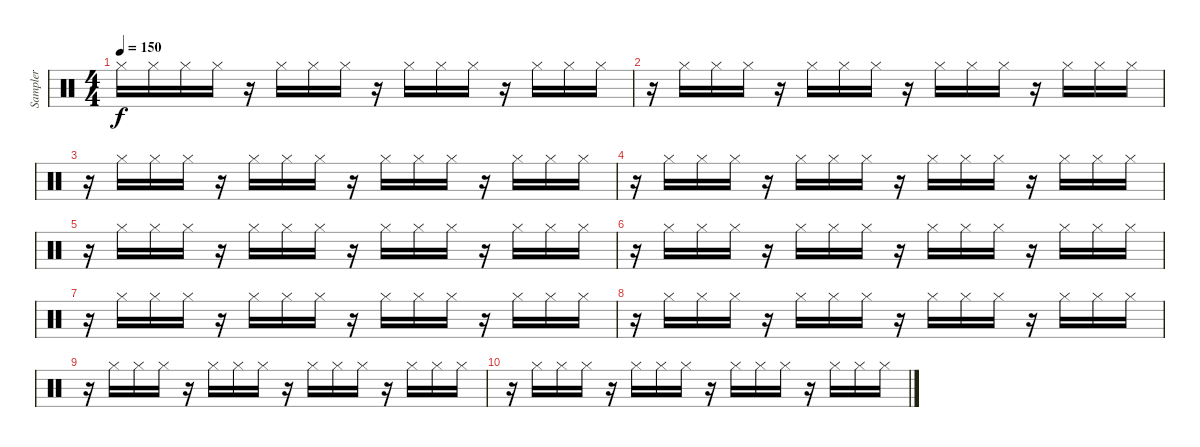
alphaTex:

\track ("Sampler" "Sampler") {instrument percussion}
\staff {score}
\articulation defaults
\ts (4 4)
\tempo 150
\clef neutral
\ks c "Hi-Hat (closed)".16{dy f} "Hi-Hat (closed)".16 "Hi-Hat (closed)".16 "Hi-Hat (closed)".16
r.16 "Hi-Hat (closed)".16 "Hi-Hat (closed)".16 "Hi-Hat (closed)".16 r.16 "Hi-Hat (closed)".16 "Hi-Hat (closed)".16 "Hi-Hat (closed)".16 r.16 "Hi-Hat (closed)".16 "Hi-Hat (closed)".16 "Hi-Hat (closed)".16 |
r.16 "Hi-Hat (closed)".16 "Hi-Hat (closed)".16 "Hi-Hat (closed)".16 r.16 "Hi-Hat (closed)".16 "Hi-Hat (closed)".16 "Hi-Hat (closed)".16 r.16 "Hi-Hat (closed)".16 "Hi-Hat (closed)".16 "Hi-Hat (closed)".16 r.16 "Hi-Hat (closed)".16 "Hi-Hat (closed)".16 "Hi-Hat (closed)".16 |
r.16 "Hi-Hat (closed)".16 "Hi-Hat (closed)".16 "Hi-Hat (closed)".16 r.16 "Hi-Hat (closed)".16 "Hi-Hat (closed)".16 "Hi-Hat (closed)".16 r.16 "Hi-Hat (closed)".16 "Hi-Hat (closed)".16 "Hi-Hat (closed)".16 r.16 "Hi-Hat (closed)".16 "Hi-Hat (closed)".16 "Hi-Hat (closed)".16 |
r.16 "Hi-Hat (closed)".16 "Hi-Hat (closed)".16 "Hi-Hat (closed)".16 r.16 "Hi-Hat (closed)".16 "Hi-Hat (closed)".16 "Hi-Hat (closed)".16 r.16 "Hi-Hat (closed)".16 "Hi-Hat (closed)".16 "Hi-Hat (closed)".16 r.16 "Hi-Hat (closed)".16 "Hi-Hat (closed)".16 "Hi-Hat (closed)".16 |
r.16 "Hi-Hat (closed)".16 "Hi-Hat (closed)".16 "Hi-Hat (closed)".16 r.16 "Hi-Hat (closed)".16 "Hi-Hat (closed)".16 "Hi-Hat (closed)".16 r.16 "Hi-Hat (closed)".16 "Hi-Hat (closed)".16 "Hi-Hat (closed)".16 r.16 "Hi-Hat (closed)".16 "Hi-Hat (closed)".16 "Hi-Hat (closed)".16 |
r.16 "Hi-Hat (closed)".16 "Hi-Hat (closed)".16 "Hi-Hat (closed)".16 r.16 "Hi-Hat (closed)".16 "Hi-Hat (closed)".16 "Hi-Hat (closed)".16 r.16 "Hi-Hat (closed)".16 "Hi-Hat (closed)".16 "Hi-Hat (closed)".16 r.16 "Hi-Hat (closed)".16 "Hi-Hat (closed)".16 "Hi-Hat (closed)".16 |
r.16 "Hi-Hat (closed)".16 "Hi-Hat (closed)".16 "Hi-Hat (closed)".16 r.16 "Hi-Hat (closed)".16 "Hi-Hat (closed)".16 "Hi-Hat (closed)".16 r.16 "Hi-Hat (closed)".16 "Hi-Hat (closed)".16 "Hi-Hat (closed)".16 r.16 "Hi-Hat (closed)".16 "Hi-Hat (closed)".16 "Hi-Hat (closed)".16 |
r.16 "Hi-Hat (closed)".16 "Hi-Hat (closed)".16 "Hi-Hat (closed)".16 r.16 "Hi-Hat (closed)".16 "Hi-Hat (closed)".16 "Hi-Hat (closed)".16 r.16 "Hi-Hat (closed)".16 "Hi-Hat (closed)".16 "Hi-Hat (closed)".16 r.16 "Hi-Hat (closed)".16 "Hi-Hat (closed)".16 "Hi-Hat (closed)".16 |
r.16 "Hi-Hat (closed)".16 "Hi-Hat (closed)".16 "Hi-Hat (closed)".16 r.16 "Hi-Hat (closed)".16 "Hi-Hat (closed)".16 "Hi-Hat (closed)".16 r.16 "Hi-Hat (closed)".16 "Hi-Hat (closed)".16 "Hi-Hat (closed)".16 r.16 "Hi-Hat (closed)".16 "Hi-Hat (closed)".16 "Hi-Hat (closed)".16 |
r.16 "Hi-Hat (closed)".16 "Hi-Hat (closed)".16 "Hi-Hat (closed)".16 r.16 "Hi-Hat (closed)".16 "Hi-Hat (closed)".16 "Hi-Hat (closed)".16 r.16 "Hi-Hat (closed)".16 "Hi-Hat (closed)".16 "Hi-Hat (closed)".16 r.16 "Hi-Hat (closed)".16 "Hi-Hat (closed)".16 "Hi-Hat (closed)".16
